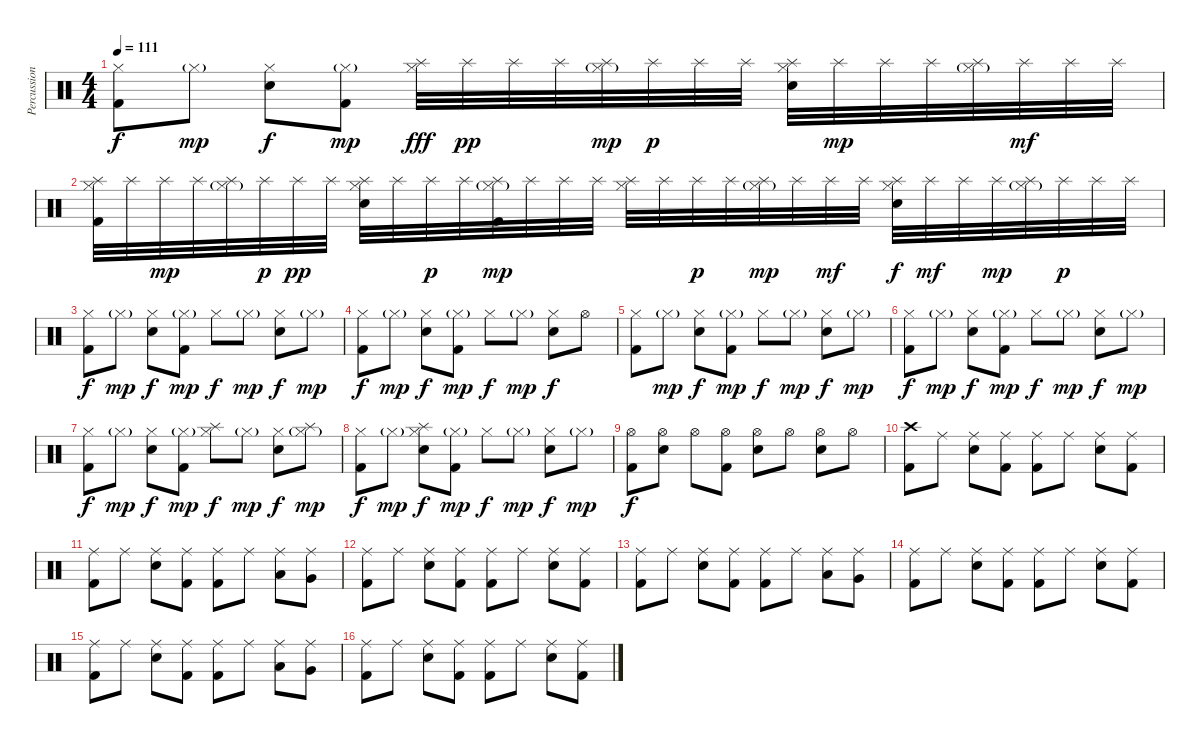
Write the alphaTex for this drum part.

\track ("Percussion" "Percussion") {instrument percussion}
\staff {score}
\articulation defaults
\ts (4 4)
\tempo 111
\clef neutral
\ks c
("Hi-Hat (closed)" "Kick (hit) 2").8{dy f} "Hi-Hat (closed)"{g}.8{dy mp} ("Hi-Hat (closed)" "Electric Snare (hit)").8{dy f} ("Hi-Hat (closed)"{g} "Kick (hit) 2").8{dy mp} ("Splash (hit)" "Hi-Hat (closed)").32{dy fff} "Splash (hit)".32{dy pp} "Splash (hit)".32 "Splash (hit)".32 ("Splash (hit)" "Hi-Hat (closed)"{g}).32{dy mp} "Splash (hit)".32{dy p} "Splash (hit)".32 "Splash (hit)".32 ("Splash (hit)" "Hi-Hat (closed)" "Electric Snare (hit)").32 "Splash (hit)".32{dy mp} "Splash (hit)".32 "Splash (hit)".32 ("Splash (hit)" "Hi-Hat (closed)"{g}).32 "Splash (hit)".32{dy mf} "Splash (hit)".32 "Splash (hit)".32 |
("Splash (hit)" "Hi-Hat (closed)" "Kick (hit) 2").32 "Splash (hit)".32 "Splash (hit)".32{dy mp} "Splash (hit)".32 ("Splash (hit)" "Hi-Hat (closed)"{g}).32 "Splash (hit)".32{dy p} "Splash (hit)".32{dy pp} "Splash (hit)".32 ("Splash (hit)" "Hi-Hat (closed)" "Electric Snare (hit)").32 "Splash (hit)".32 "Splash (hit)".32{dy p} "Splash (hit)".32 ("Splash (hit)" "Hi-Hat (closed)"{g} "Kick (hit) 2").32{dy mp} "Splash (hit)".32 "Splash (hit)".32 "Splash (hit)".32 ("Splash (hit)" "Hi-Hat (closed)").32 "Splash (hit)".32 "Splash (hit)".32{dy p} "Splash (hit)".32 ("Splash (hit)" "Hi-Hat (closed)"{g}).32{dy mp} "Splash (hit)".32 "Splash (hit)".32{dy mf} "Splash (hit)".32 ("Splash (hit)" "Hi-Hat (closed)" "Electric Snare (hit)").32{dy f} "Splash (hit)".32{dy mf} "Splash (hit)".32 "Splash (hit)".32{dy mp} ("Splash (hit)" "Hi-Hat (closed)"{g}).32 "Splash (hit)".32{dy p} "Splash (hit)".32 "Splash (hit)".32 |
("Hi-Hat (closed)" "Kick (hit) 2").8{dy f} "Hi-Hat (closed)"{g}.8{dy mp} ("Hi-Hat (closed)" "Electric Snare (hit)").8{dy f} ("Hi-Hat (closed)"{g} "Kick (hit) 2").8{dy mp} "Hi-Hat (closed)".8{dy f} "Hi-Hat (closed)"{g}.8{dy mp} ("Hi-Hat (closed)" "Electric Snare (hit)").8{dy f} "Hi-Hat (closed)"{g}.8{dy mp} |
("Hi-Hat (closed)" "Kick (hit) 2").8{dy f} "Hi-Hat (closed)"{g}.8{dy mp} ("Hi-Hat (closed)" "Electric Snare (hit)").8{dy f} ("Hi-Hat (closed)"{g} "Kick (hit) 2").8{dy mp} "Hi-Hat (closed)".8{dy f} "Hi-Hat (closed)"{g}.8{dy mp} ("Hi-Hat (closed)" "Electric Snare (hit)").8{dy f} "Hi-Hat (open)".8 |
("Hi-Hat (closed)" "Kick (hit) 2").8 "Hi-Hat (closed)"{g}.8{dy mp} ("Hi-Hat (closed)" "Electric Snare (hit)").8{dy f} ("Hi-Hat (closed)"{g} "Kick (hit) 2").8{dy mp} "Hi-Hat (closed)".8{dy f} "Hi-Hat (closed)"{g}.8{dy mp} ("Hi-Hat (closed)" "Electric Snare (hit)").8{dy f} "Hi-Hat (closed)"{g}.8{dy mp} |
("Hi-Hat (closed)" "Kick (hit) 2").8{dy f} "Hi-Hat (closed)"{g}.8{dy mp} ("Hi-Hat (closed)" "Electric Snare (hit)").8{dy f} ("Hi-Hat (closed)"{g} "Kick (hit) 2").8{dy mp} "Hi-Hat (closed)".8{dy f} "Hi-Hat (closed)"{g}.8{dy mp} ("Hi-Hat (closed)" "Electric Snare (hit)").8{dy f} "Hi-Hat (closed)"{g}.8{dy mp} |
("Hi-Hat (closed)" "Kick (hit) 2").8{dy f} "Hi-Hat (closed)"{g}.8{dy mp} ("Hi-Hat (closed)" "Electric Snare (hit)").8{dy f} ("Hi-Hat (closed)"{g} "Kick (hit) 2").8{dy mp} ("Splash (hit)" "Hi-Hat (closed)").8{dy f} "Hi-Hat (closed)"{g}.8{dy mp} ("Hi-Hat (closed)" "Electric Snare (hit)").8{dy f} ("Splash (hit)" "Hi-Hat (closed)"{g}).8{dy mp} |
("Hi-Hat (closed)" "Kick (hit) 2").8{dy f} "Hi-Hat (closed)"{g}.8{dy mp} ("Splash (hit)" "Hi-Hat (closed)" "Electric Snare (hit)").8{dy f} ("Hi-Hat (closed)"{g} "Kick (hit) 2").8{dy mp} "Hi-Hat (closed)".8{dy f} "Hi-Hat (closed)"{g}.8{dy mp} ("Hi-Hat (closed)" "Electric Snare (hit)").8{dy f} "Hi-Hat (closed)"{g}.8{dy mp} |
("Hi-Hat (open)" "Kick (hit) 2").8{dy f} ("Hi-Hat (open)" "Electric Snare (hit)").8 "Hi-Hat (open)".8 ("Hi-Hat (open)" "Kick (hit) 2").8 ("Hi-Hat (open)" "Electric Snare (hit)").8 "Hi-Hat (open)".8 ("Hi-Hat (open)" "Electric Snare (hit)").8 "Hi-Hat (open)".8 |
("Crash high (hit)" "Kick (hit) 2").8 "Ride (middle)".8 ("Ride (middle)" "Electric Snare (hit)").8 ("Ride (middle)" "Kick (hit) 2").8 ("Ride (middle)" "Kick (hit) 2").8 "Ride (middle)".8 ("Ride (middle)" "Electric Snare (hit)").8 ("Ride (middle)" "Kick (hit) 2").8 |
("Ride (middle)" "Kick (hit) 2").8 "Ride (middle)".8 ("Ride (middle)" "Electric Snare (hit)").8 ("Ride (middle)" "Kick (hit) 2").8 ("Ride (middle)" "Kick (hit) 2").8 "Ride (middle)".8 ("Ride (middle)" "Low Tom (hit)").8 ("Ride (middle)" "Very Low Tom (hit)").8 |
("Ride (middle)" "Kick (hit) 2").8 "Ride (middle)".8 ("Ride (middle)" "Electric Snare (hit)").8 ("Ride (middle)" "Kick (hit) 2").8 ("Ride (middle)" "Kick (hit) 2").8 "Ride (middle)".8 ("Ride (middle)" "Electric Snare (hit)").8 ("Ride (middle)" "Kick (hit) 2").8 |
("Ride (middle)" "Kick (hit) 2").8 "Ride (middle)".8 ("Ride (middle)" "Electric Snare (hit)").8 ("Ride (middle)" "Kick (hit) 2").8 ("Ride (middle)" "Kick (hit) 2").8 "Ride (middle)".8 ("Ride (middle)" "Low Tom (hit)").8 ("Ride (middle)" "Very Low Tom (hit)").8 |
("Ride (middle)" "Kick (hit) 2").8 "Ride (middle)".8 ("Ride (middle)" "Electric Snare (hit)").8 ("Ride (middle)" "Kick (hit) 2").8 ("Ride (middle)" "Kick (hit) 2").8 "Ride (middle)".8 ("Ride (middle)" "Electric Snare (hit)").8 ("Ride (middle)" "Kick (hit) 2").8 |
("Ride (middle)" "Kick (hit) 2").8 "Ride (middle)".8 ("Ride (middle)" "Electric Snare (hit)").8 ("Ride (middle)" "Kick (hit) 2").8 ("Ride (middle)" "Kick (hit) 2").8 "Ride (middle)".8 ("Ride (middle)" "Low Tom (hit)").8 ("Ride (middle)" "Very Low Tom (hit)").8 |
("Ride (middle)" "Kick (hit) 2").8 "Ride (middle)".8 ("Ride (middle)" "Electric Snare (hit)").8 ("Ride (middle)" "Kick (hit) 2").8 ("Ride (middle)" "Kick (hit) 2").8 "Ride (middle)".8 ("Ride (middle)" "Electric Snare (hit)").8 ("Ride (middle)" "Kick (hit) 2").8
